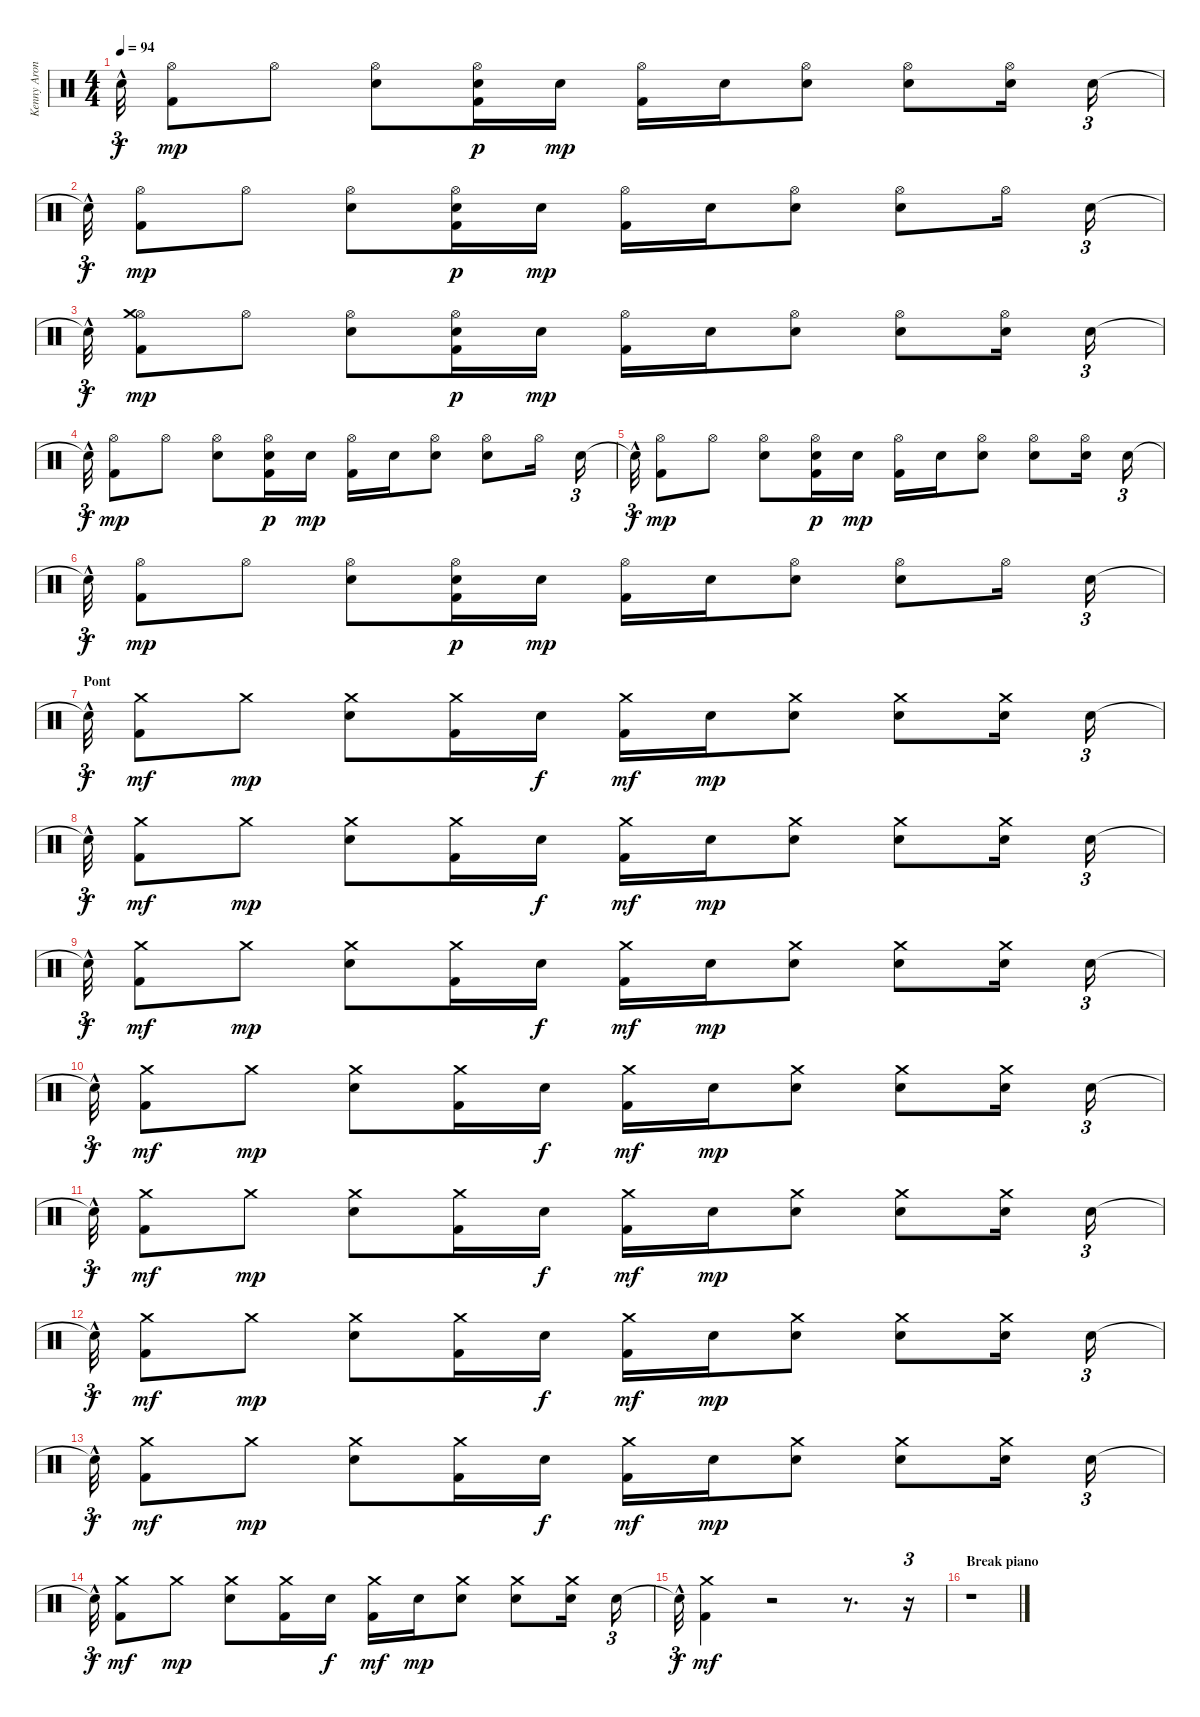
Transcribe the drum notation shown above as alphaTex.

\track ("Kenny Aronoff - Batterie" "Kenny Aron") {instrument percussion}
\staff {score}
\articulation defaults
\ts (4 4)
\tempo 94
\clef neutral
\ks c "Snare (hit)"{hac t}.32{tu (3 2) dy f}
("Kick (hit) 2" "Hi-Hat (open)").8{dy mp} "Hi-Hat (open)".8 ("Hi-Hat (open)" "Electric Snare (hit)").8 ("Kick (hit) 2" "Hi-Hat (open)" "Electric Snare (hit)").16{dy p} "Electric Snare (hit)".16{dy mp} ("Kick (hit) 2" "Hi-Hat (open)").16 "Electric Snare (hit)".16 ("Hi-Hat (open)" "Electric Snare (hit)").8 ("Electric Snare (hit)" "Hi-Hat (open)").8 ("Hi-Hat (open)" "Electric Snare (hit)").16 "Electric Snare (hit)".16{tu (3 2)} |
"Snare (hit)"{hac t}.32{tu (3 2) dy f} ("Kick (hit) 2" "Hi-Hat (open)").8{dy mp} "Hi-Hat (open)".8 ("Hi-Hat (open)" "Electric Snare (hit)").8 ("Kick (hit) 2" "Hi-Hat (open)" "Electric Snare (hit)").16{dy p} "Electric Snare (hit)".16{dy mp} ("Kick (hit) 2" "Hi-Hat (open)").16 "Electric Snare (hit)".16 ("Hi-Hat (open)" "Electric Snare (hit)").8 ("Electric Snare (hit)" "Hi-Hat (open)").8 "Hi-Hat (open)".16 "Electric Snare (hit)".16{tu (3 2)} |
"Snare (hit)"{hac t}.32{tu (3 2) dy f} ("Kick (hit) 2" "Hi-Hat (open)" "Crash medium (hit)").8{dy mp} "Hi-Hat (open)".8 ("Hi-Hat (open)" "Electric Snare (hit)").8 ("Kick (hit) 2" "Hi-Hat (open)" "Electric Snare (hit)").16{dy p} "Electric Snare (hit)".16{dy mp} ("Kick (hit) 2" "Hi-Hat (open)").16 "Electric Snare (hit)".16 ("Hi-Hat (open)" "Electric Snare (hit)").8 ("Electric Snare (hit)" "Hi-Hat (open)").8 ("Hi-Hat (open)" "Electric Snare (hit)").16 "Electric Snare (hit)".16{tu (3 2)} |
"Snare (hit)"{hac t}.32{tu (3 2) dy f} ("Kick (hit) 2" "Hi-Hat (open)").8{dy mp} "Hi-Hat (open)".8 ("Hi-Hat (open)" "Electric Snare (hit)").8 ("Kick (hit) 2" "Hi-Hat (open)" "Electric Snare (hit)").16{dy p} "Electric Snare (hit)".16{dy mp} ("Kick (hit) 2" "Hi-Hat (open)").16 "Electric Snare (hit)".16 ("Hi-Hat (open)" "Electric Snare (hit)").8 ("Electric Snare (hit)" "Hi-Hat (open)").8 "Hi-Hat (open)".16 "Electric Snare (hit)".16{tu (3 2)} |
"Snare (hit)"{hac t}.32{tu (3 2) dy f} ("Kick (hit) 2" "Hi-Hat (open)").8{dy mp} "Hi-Hat (open)".8 ("Hi-Hat (open)" "Electric Snare (hit)").8 ("Kick (hit) 2" "Hi-Hat (open)" "Electric Snare (hit)").16{dy p} "Electric Snare (hit)".16{dy mp} ("Kick (hit) 2" "Hi-Hat (open)").16 "Electric Snare (hit)".16 ("Hi-Hat (open)" "Electric Snare (hit)").8 ("Electric Snare (hit)" "Hi-Hat (open)").8 ("Hi-Hat (open)" "Electric Snare (hit)").16 "Electric Snare (hit)".16{tu (3 2)} |
"Snare (hit)"{hac t}.32{tu (3 2) dy f} ("Kick (hit) 2" "Hi-Hat (open)").8{dy mp} "Hi-Hat (open)".8 ("Hi-Hat (open)" "Electric Snare (hit)").8 ("Kick (hit) 2" "Hi-Hat (open)" "Electric Snare (hit)").16{dy p} "Electric Snare (hit)".16{dy mp} ("Kick (hit) 2" "Hi-Hat (open)").16 "Electric Snare (hit)".16 ("Hi-Hat (open)" "Electric Snare (hit)").8 ("Electric Snare (hit)" "Hi-Hat (open)").8 "Hi-Hat (open)".16 "Electric Snare (hit)".16{tu (3 2)} |
\section ("" "Pont")
"Snare (hit)"{hac t}.32{tu (3 2) dy f} ("Crash medium (hit)" "Kick (hit) 2").8{dy mf} "Crash medium (hit)".8{dy mp} ("Electric Snare (hit)" "Crash medium (hit)").8 ("Crash medium (hit)" "Kick (hit) 2").16 "Electric Snare (hit)".16{dy f} ("Crash medium (hit)" "Kick (hit) 2").16{dy mf} "Electric Snare (hit)".16{dy mp} ("Electric Snare (hit)" "Crash medium (hit)").8 ("Crash medium (hit)" "Electric Snare (hit)").8 ("Electric Snare (hit)" "Crash medium (hit)").16 "Electric Snare (hit)".16{tu (3 2)} |
"Snare (hit)"{hac t}.32{tu (3 2) dy f} ("Crash medium (hit)" "Kick (hit) 2").8{dy mf} "Crash medium (hit)".8{dy mp} ("Electric Snare (hit)" "Crash medium (hit)").8 ("Crash medium (hit)" "Kick (hit) 2").16 "Electric Snare (hit)".16{dy f} ("Crash medium (hit)" "Kick (hit) 2").16{dy mf} "Electric Snare (hit)".16{dy mp} ("Electric Snare (hit)" "Crash medium (hit)").8 ("Crash medium (hit)" "Electric Snare (hit)").8 ("Electric Snare (hit)" "Crash medium (hit)").16 "Electric Snare (hit)".16{tu (3 2)} |
"Snare (hit)"{hac t}.32{tu (3 2) dy f} ("Crash medium (hit)" "Kick (hit) 2").8{dy mf} "Crash medium (hit)".8{dy mp} ("Electric Snare (hit)" "Crash medium (hit)").8 ("Crash medium (hit)" "Kick (hit) 2").16 "Electric Snare (hit)".16{dy f} ("Crash medium (hit)" "Kick (hit) 2").16{dy mf} "Electric Snare (hit)".16{dy mp} ("Electric Snare (hit)" "Crash medium (hit)").8 ("Crash medium (hit)" "Electric Snare (hit)").8 ("Electric Snare (hit)" "Crash medium (hit)").16 "Electric Snare (hit)".16{tu (3 2)} |
"Snare (hit)"{hac t}.32{tu (3 2) dy f} ("Crash medium (hit)" "Kick (hit) 2").8{dy mf} "Crash medium (hit)".8{dy mp} ("Electric Snare (hit)" "Crash medium (hit)").8 ("Crash medium (hit)" "Kick (hit) 2").16 "Electric Snare (hit)".16{dy f} ("Crash medium (hit)" "Kick (hit) 2").16{dy mf} "Electric Snare (hit)".16{dy mp} ("Electric Snare (hit)" "Crash medium (hit)").8 ("Crash medium (hit)" "Electric Snare (hit)").8 ("Electric Snare (hit)" "Crash medium (hit)").16 "Electric Snare (hit)".16{tu (3 2)} |
"Snare (hit)"{hac t}.32{tu (3 2) dy f} ("Crash medium (hit)" "Kick (hit) 2").8{dy mf} "Crash medium (hit)".8{dy mp} ("Electric Snare (hit)" "Crash medium (hit)").8 ("Crash medium (hit)" "Kick (hit) 2").16 "Electric Snare (hit)".16{dy f} ("Crash medium (hit)" "Kick (hit) 2").16{dy mf} "Electric Snare (hit)".16{dy mp} ("Electric Snare (hit)" "Crash medium (hit)").8 ("Crash medium (hit)" "Electric Snare (hit)").8 ("Electric Snare (hit)" "Crash medium (hit)").16 "Electric Snare (hit)".16{tu (3 2)} |
"Snare (hit)"{hac t}.32{tu (3 2) dy f} ("Crash medium (hit)" "Kick (hit) 2").8{dy mf} "Crash medium (hit)".8{dy mp} ("Electric Snare (hit)" "Crash medium (hit)").8 ("Crash medium (hit)" "Kick (hit) 2").16 "Electric Snare (hit)".16{dy f} ("Crash medium (hit)" "Kick (hit) 2").16{dy mf} "Electric Snare (hit)".16{dy mp} ("Electric Snare (hit)" "Crash medium (hit)").8 ("Crash medium (hit)" "Electric Snare (hit)").8 ("Electric Snare (hit)" "Crash medium (hit)").16 "Electric Snare (hit)".16{tu (3 2)} |
"Snare (hit)"{hac t}.32{tu (3 2) dy f} ("Crash medium (hit)" "Kick (hit) 2").8{dy mf} "Crash medium (hit)".8{dy mp} ("Electric Snare (hit)" "Crash medium (hit)").8 ("Crash medium (hit)" "Kick (hit) 2").16 "Electric Snare (hit)".16{dy f} ("Crash medium (hit)" "Kick (hit) 2").16{dy mf} "Electric Snare (hit)".16{dy mp} ("Electric Snare (hit)" "Crash medium (hit)").8 ("Crash medium (hit)" "Electric Snare (hit)").8 ("Electric Snare (hit)" "Crash medium (hit)").16 "Electric Snare (hit)".16{tu (3 2)} |
"Snare (hit)"{hac t}.32{tu (3 2) dy f} ("Crash medium (hit)" "Kick (hit) 2").8{dy mf} "Crash medium (hit)".8{dy mp} ("Electric Snare (hit)" "Crash medium (hit)").8 ("Crash medium (hit)" "Kick (hit) 2").16 "Electric Snare (hit)".16{dy f} ("Crash medium (hit)" "Kick (hit) 2").16{dy mf} "Electric Snare (hit)".16{dy mp} ("Electric Snare (hit)" "Crash medium (hit)").8 ("Crash medium (hit)" "Electric Snare (hit)").8 ("Electric Snare (hit)" "Crash medium (hit)").16 "Electric Snare (hit)".16{tu (3 2)} |
"Snare (hit)"{hac t}.32{tu (3 2) dy f} ("Crash medium (hit)" "Kick (hit) 2").4{dy mf} r.2 r.8{d} r.16{tu (3 2)} |
\section ("" "Break piano")
r.1
